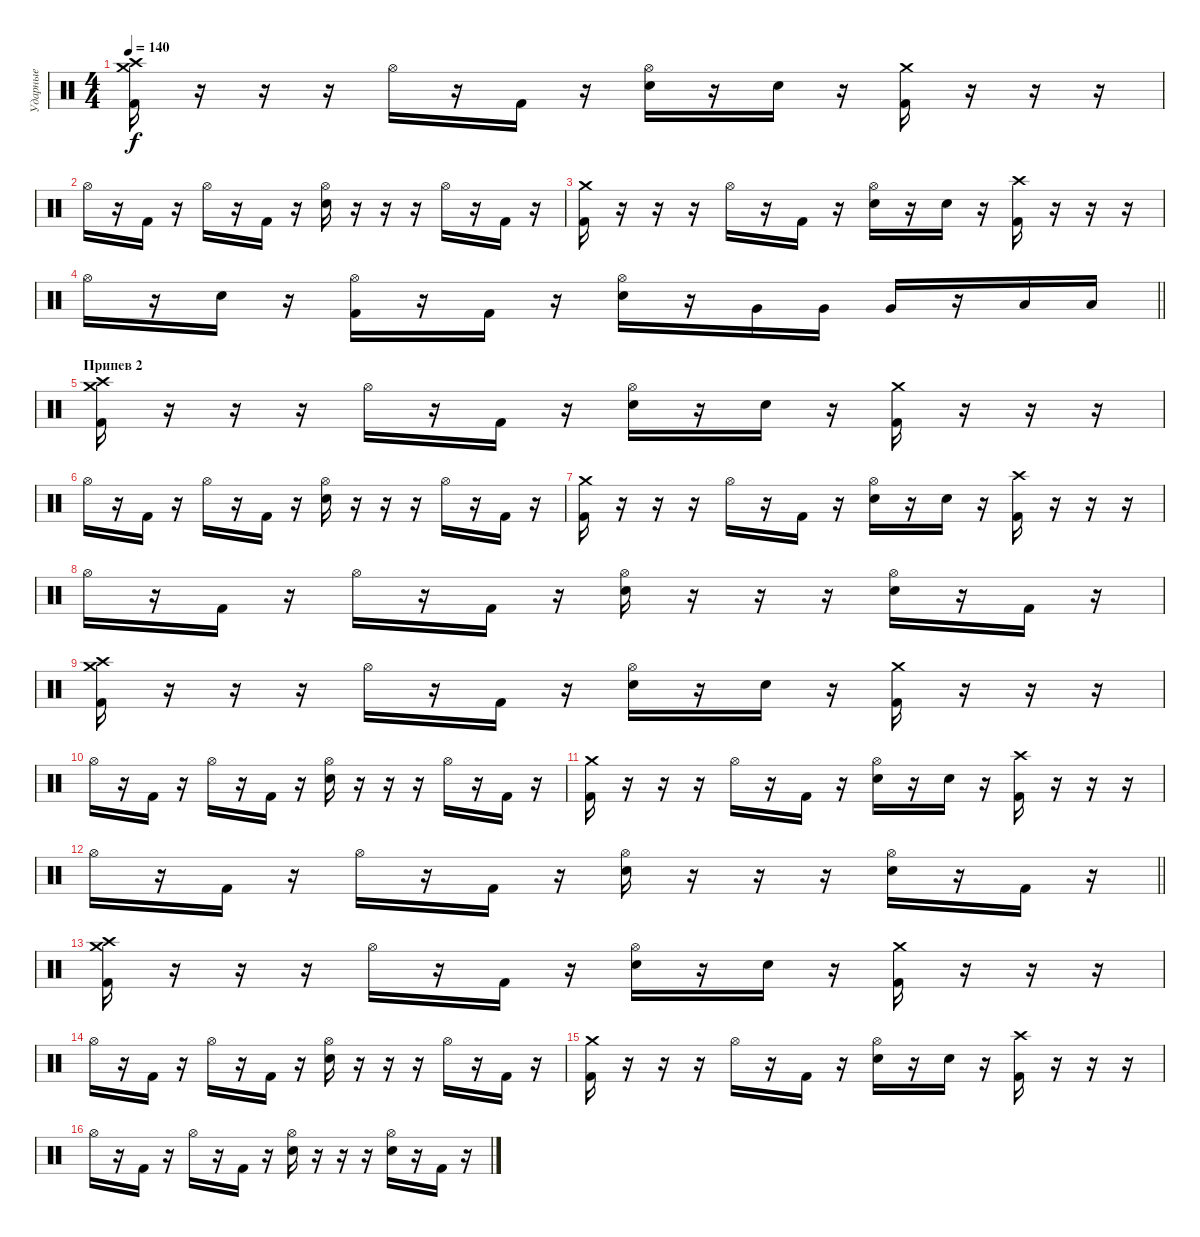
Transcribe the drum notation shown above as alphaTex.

\track ("Ударные" "Ударные") {instrument percussion}
\staff {score}
\articulation defaults
\ts (4 4)
\tempo 140
\clef neutral
\ks c
("Crash high (hit)" "Crash medium (hit)" "Kick (hit) 2").16{dy f} r.16 r.16 r.16 "Hi-Hat (open)".16 r.16 "Kick (hit) 2".16 r.16 ("Hi-Hat (open)" "Snare (hit) 2").16 r.16 "Snare (hit) 2".16 r.16 ("Crash medium (hit)" "Kick (hit) 2").16 r.16 r.16 r.16 |
"Hi-Hat (open)".16 r.16 "Kick (hit) 2".16 r.16 "Hi-Hat (open)".16 r.16 "Kick (hit) 2".16 r.16 ("Hi-Hat (open)" "Snare (hit) 2").16 r.16 r.16 r.16 "Hi-Hat (open)".16 r.16 "Kick (hit) 2".16 r.16 |
("Crash medium (hit)" "Kick (hit) 2").16 r.16 r.16 r.16 "Hi-Hat (open)".16 r.16 "Kick (hit) 2".16 r.16 ("Hi-Hat (open)" "Snare (hit) 2").16 r.16 "Snare (hit) 2".16 r.16 ("Crash high (hit)" "Kick (hit) 2").16 r.16 r.16 r.16 |
\barLineRight lightlight "Hi-Hat (open)".16
r.16 "Snare (hit) 2".16 r.16 ("Hi-Hat (open)" "Kick (hit) 2").16 r.16 "Kick (hit) 2".16 r.16 ("Hi-Hat (open)" "Snare (hit) 2").16 r.16 "Very Low Tom (hit)".16 "Very Low Tom (hit)".16 "Very Low Tom (hit)".16 r.16 "Low Tom (hit)".16 "Low Tom (hit)".16 |
\section ("" "Припев 2")
("Crash high (hit)" "Crash medium (hit)" "Kick (hit) 2").16 r.16 r.16 r.16 "Hi-Hat (open)".16 r.16 "Kick (hit) 2".16 r.16 ("Hi-Hat (open)" "Snare (hit) 2").16 r.16 "Snare (hit) 2".16 r.16 ("Crash medium (hit)" "Kick (hit) 2").16 r.16 r.16 r.16 |
"Hi-Hat (open)".16 r.16 "Kick (hit) 2".16 r.16 "Hi-Hat (open)".16 r.16 "Kick (hit) 2".16 r.16 ("Hi-Hat (open)" "Snare (hit) 2").16 r.16 r.16 r.16 "Hi-Hat (open)".16 r.16 "Kick (hit) 2".16 r.16 |
("Crash medium (hit)" "Kick (hit) 2").16 r.16 r.16 r.16 "Hi-Hat (open)".16 r.16 "Kick (hit) 2".16 r.16 ("Hi-Hat (open)" "Snare (hit) 2").16 r.16 "Snare (hit) 2".16 r.16 ("Crash high (hit)" "Kick (hit) 2").16 r.16 r.16 r.16 |
"Hi-Hat (open)".16 r.16 "Kick (hit) 2".16 r.16 "Hi-Hat (open)".16 r.16 "Kick (hit) 2".16 r.16 ("Hi-Hat (open)" "Snare (hit) 2").16 r.16 r.16 r.16 ("Hi-Hat (open)" "Snare (hit) 2").16 r.16 "Kick (hit) 2".16 r.16 |
("Crash high (hit)" "Crash medium (hit)" "Kick (hit) 2").16 r.16 r.16 r.16 "Hi-Hat (open)".16 r.16 "Kick (hit) 2".16 r.16 ("Hi-Hat (open)" "Snare (hit) 2").16 r.16 "Snare (hit) 2".16 r.16 ("Crash medium (hit)" "Kick (hit) 2").16 r.16 r.16 r.16 |
"Hi-Hat (open)".16 r.16 "Kick (hit) 2".16 r.16 "Hi-Hat (open)".16 r.16 "Kick (hit) 2".16 r.16 ("Hi-Hat (open)" "Snare (hit) 2").16 r.16 r.16 r.16 "Hi-Hat (open)".16 r.16 "Kick (hit) 2".16 r.16 |
("Crash medium (hit)" "Kick (hit) 2").16 r.16 r.16 r.16 "Hi-Hat (open)".16 r.16 "Kick (hit) 2".16 r.16 ("Hi-Hat (open)" "Snare (hit) 2").16 r.16 "Snare (hit) 2".16 r.16 ("Crash high (hit)" "Kick (hit) 2").16 r.16 r.16 r.16 |
\barLineRight lightlight "Hi-Hat (open)".16
r.16 "Kick (hit) 2".16 r.16 "Hi-Hat (open)".16 r.16 "Kick (hit) 2".16 r.16 ("Hi-Hat (open)" "Snare (hit) 2").16 r.16 r.16 r.16 ("Hi-Hat (open)" "Snare (hit) 2").16 r.16 "Kick (hit) 2".16 r.16 |
("Crash high (hit)" "Crash medium (hit)" "Kick (hit) 2").16 r.16 r.16 r.16 "Hi-Hat (open)".16 r.16 "Kick (hit) 2".16 r.16 ("Hi-Hat (open)" "Snare (hit) 2").16 r.16 "Snare (hit) 2".16 r.16 ("Crash medium (hit)" "Kick (hit) 2").16 r.16 r.16 r.16 |
"Hi-Hat (open)".16 r.16 "Kick (hit) 2".16 r.16 "Hi-Hat (open)".16 r.16 "Kick (hit) 2".16 r.16 ("Hi-Hat (open)" "Snare (hit) 2").16 r.16 r.16 r.16 "Hi-Hat (open)".16 r.16 "Kick (hit) 2".16 r.16 |
("Crash medium (hit)" "Kick (hit) 2").16 r.16 r.16 r.16 "Hi-Hat (open)".16 r.16 "Kick (hit) 2".16 r.16 ("Hi-Hat (open)" "Snare (hit) 2").16 r.16 "Snare (hit) 2".16 r.16 ("Crash high (hit)" "Kick (hit) 2").16 r.16 r.16 r.16 |
"Hi-Hat (open)".16 r.16 "Kick (hit) 2".16 r.16 "Hi-Hat (open)".16 r.16 "Kick (hit) 2".16 r.16 ("Hi-Hat (open)" "Snare (hit) 2").16 r.16 r.16 r.16 ("Hi-Hat (open)" "Snare (hit) 2").16 r.16 "Kick (hit) 2".16 r.16
